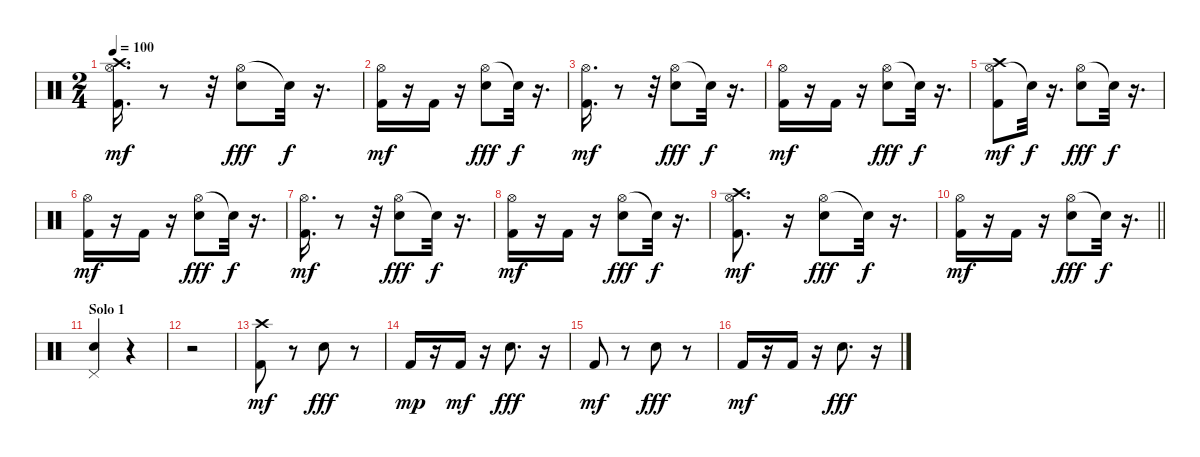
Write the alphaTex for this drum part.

\track "" {instrument percussion}
\staff {score}
\articulation defaults
\ts (2 4)
\tempo 100
\clef neutral
\ks c
("Hi-Hat (open)" "Crash high (hit)" "Kick (hit) 2").16{d dy mf} r.8 r.32 ("Hi-Hat (open)" "Snare (hit) 2").8{dy fff} "Snare (hit)"{t}.32{dy f} r.16{d} |
("Hi-Hat (open)" "Kick (hit) 2").16{dy mf} r.16 "Kick (hit) 2".16 r.16 ("Hi-Hat (open)" "Snare (hit) 2").8{dy fff} "Snare (hit)"{t}.32{dy f} r.16{d} |
("Hi-Hat (open)" "Kick (hit) 2").16{d dy mf} r.8 r.32 ("Hi-Hat (open)" "Snare (hit) 2").8{dy fff} "Snare (hit)"{t}.32{dy f} r.16{d} |
("Hi-Hat (open)" "Kick (hit) 2").16{dy mf} r.16 "Kick (hit) 2".16 r.16 ("Hi-Hat (open)" "Snare (hit) 2").8{dy fff} "Snare (hit)"{t}.32{dy f} r.16{d} |
("Hi-Hat (open)" "Crash high (hit)" "Kick (hit) 2").8{dy mf} "Snare (hit)"{t}.32{dy f} r.16{d} ("Hi-Hat (open)" "Snare (hit) 2").8{dy fff} "Snare (hit)"{t}.32{dy f} r.16{d} |
("Hi-Hat (open)" "Kick (hit) 2").16{dy mf} r.16 "Kick (hit) 2".16 r.16 ("Hi-Hat (open)" "Snare (hit) 2").8{dy fff} "Snare (hit)"{t}.32{dy f} r.16{d} |
("Hi-Hat (open)" "Kick (hit) 2").16{d dy mf} r.8 r.32 ("Hi-Hat (open)" "Snare (hit) 2").8{dy fff} "Snare (hit)"{t}.32{dy f} r.16{d} |
("Hi-Hat (open)" "Kick (hit) 2").16{dy mf} r.16 "Kick (hit) 2".16 r.16 ("Hi-Hat (open)" "Snare (hit) 2").8{dy fff} "Snare (hit)"{t}.32{dy f} r.16{d} |
("Hi-Hat (open)" "Crash high (hit)" "Kick (hit) 2").8{d dy mf} r.16 ("Hi-Hat (open)" "Snare (hit) 2").8{dy fff} "Snare (hit)"{t}.32{dy f} r.16{d} |
\barLineRight lightlight
("Hi-Hat (open)" "Kick (hit) 2").16{dy mf} r.16 "Kick (hit) 2".16 r.16 ("Hi-Hat (open)" "Snare (hit) 2").8{dy fff} "Snare (hit)"{t}.32{dy f} r.16{d} |
\section ("" "Solo 1")
("Pedal Hi-Hat (hit)" "Snare (hit) 2").4 r.4 |
r.2 |
("Crash high (hit)" "Kick (hit) 2").8{dy mf} r.8 "Snare (hit) 2".8{dy fff} r.8 |
"Kick (hit) 2".16{dy mp} r.16 "Kick (hit) 2".16{dy mf} r.16 "Snare (hit) 2".8{d dy fff} r.16 |
"Kick (hit) 2".8{dy mf} r.8 "Snare (hit) 2".8{dy fff} r.8 |
"Kick (hit) 2".16{dy mf} r.16 "Kick (hit) 2".16 r.16 "Snare (hit) 2".8{d dy fff} r.16
